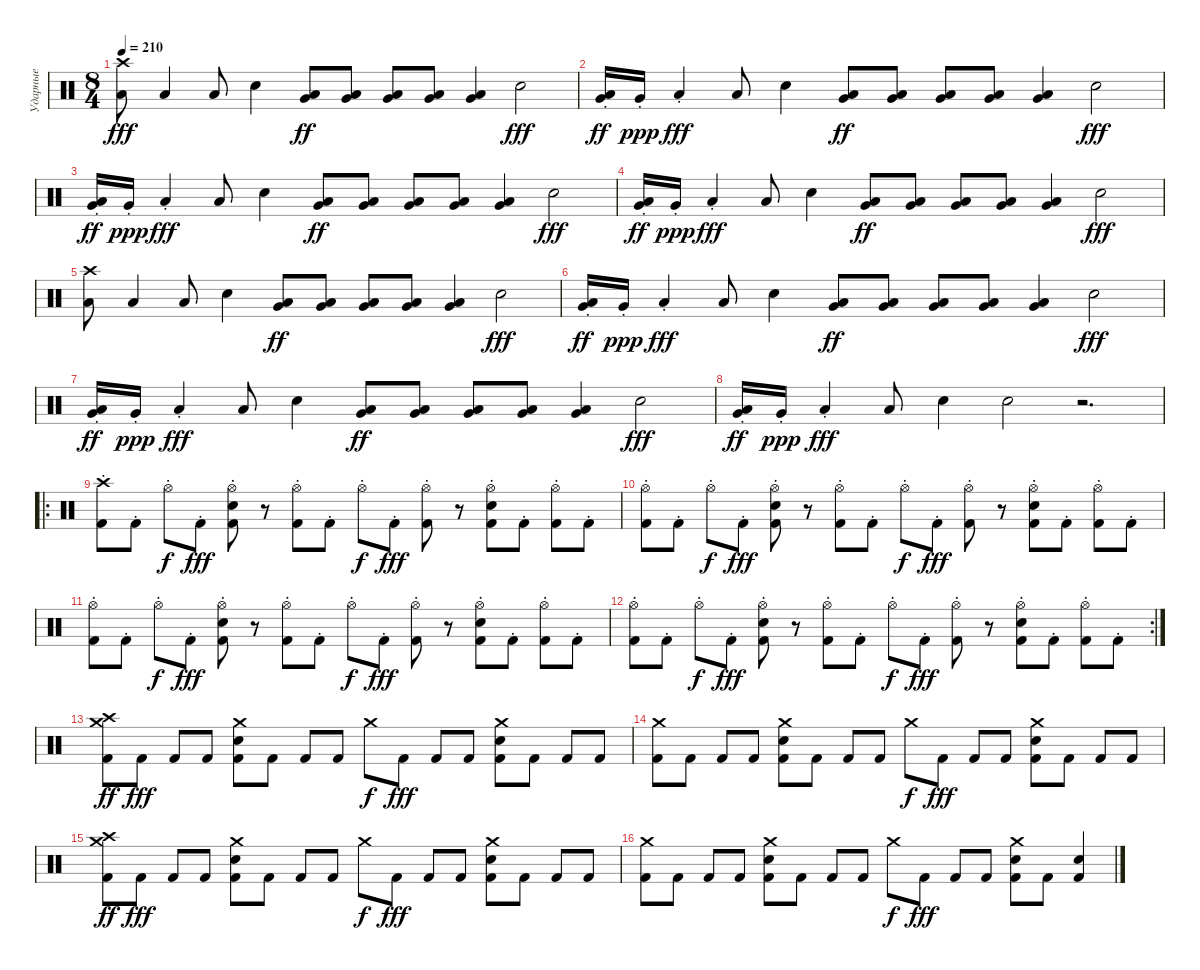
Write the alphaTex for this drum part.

\track ("Ударные" "Ударные") {instrument percussion}
\staff {score}
\articulation defaults
\ts (8 4)
\tempo 210
\clef neutral
\ks c
("Crash high (hit)" "Low Floor Tom (hit)").8{dy fff} "Low Floor Tom (hit)".4 "Low Floor Tom (hit)".8 "Electric Snare (hit)".4 ("Low Floor Tom (hit)" "Very Low Tom (hit)").8{bd 120 dy ff} ("Low Floor Tom (hit)" "Very Low Tom (hit)").8{bd 120} ("Low Floor Tom (hit)" "Very Low Tom (hit)").8{bd 120} ("Low Floor Tom (hit)" "Very Low Tom (hit)").8{bd 120} ("Low Floor Tom (hit)" "Very Low Tom (hit)").4{bd 120} "Electric Snare (hit)".2{dy fff} |
("Low Floor Tom (hit)"{st} "Very Low Tom (hit)"{st}).16{bd 120 dy ff} "Very Low Tom (hit)"{st}.16{dy ppp} "Low Floor Tom (hit)"{st}.4{dy fff} "Low Floor Tom (hit)".8 "Electric Snare (hit)".4 ("Low Floor Tom (hit)" "Very Low Tom (hit)").8{bd 120 dy ff} ("Low Floor Tom (hit)" "Very Low Tom (hit)").8{bd 120} ("Low Floor Tom (hit)" "Very Low Tom (hit)").8{bd 120} ("Low Floor Tom (hit)" "Very Low Tom (hit)").8{bd 120} ("Low Floor Tom (hit)" "Very Low Tom (hit)").4{bd 120} "Electric Snare (hit)".2{dy fff} |
("Low Floor Tom (hit)"{st} "Very Low Tom (hit)"{st}).16{bd 120 dy ff} "Very Low Tom (hit)"{st}.16{dy ppp} "Low Floor Tom (hit)"{st}.4{dy fff} "Low Floor Tom (hit)".8 "Electric Snare (hit)".4 ("Low Floor Tom (hit)" "Very Low Tom (hit)").8{bd 120 dy ff} ("Low Floor Tom (hit)" "Very Low Tom (hit)").8{bd 120} ("Low Floor Tom (hit)" "Very Low Tom (hit)").8{bd 120} ("Low Floor Tom (hit)" "Very Low Tom (hit)").8{bd 120} ("Low Floor Tom (hit)" "Very Low Tom (hit)").4{bd 120} "Electric Snare (hit)".2{dy fff} |
("Low Floor Tom (hit)"{st} "Very Low Tom (hit)"{st}).16{bd 120 dy ff} "Very Low Tom (hit)"{st}.16{dy ppp} "Low Floor Tom (hit)"{st}.4{dy fff} "Low Floor Tom (hit)".8 "Electric Snare (hit)".4 ("Low Floor Tom (hit)" "Very Low Tom (hit)").8{bd 120 dy ff} ("Low Floor Tom (hit)" "Very Low Tom (hit)").8{bd 120} ("Low Floor Tom (hit)" "Very Low Tom (hit)").8{bd 120} ("Low Floor Tom (hit)" "Very Low Tom (hit)").8{bd 120} ("Low Floor Tom (hit)" "Very Low Tom (hit)").4{bd 120} "Electric Snare (hit)".2{dy fff} |
("Crash high (hit)" "Low Floor Tom (hit)").8 "Low Floor Tom (hit)".4 "Low Floor Tom (hit)".8 "Electric Snare (hit)".4 ("Low Floor Tom (hit)" "Very Low Tom (hit)").8{bd 120 dy ff} ("Low Floor Tom (hit)" "Very Low Tom (hit)").8{bd 120} ("Low Floor Tom (hit)" "Very Low Tom (hit)").8{bd 120} ("Low Floor Tom (hit)" "Very Low Tom (hit)").8{bd 120} ("Low Floor Tom (hit)" "Very Low Tom (hit)").4{bd 120} "Electric Snare (hit)".2{dy fff} |
("Low Floor Tom (hit)"{st} "Very Low Tom (hit)"{st}).16{bd 120 dy ff} "Very Low Tom (hit)"{st}.16{dy ppp} "Low Floor Tom (hit)"{st}.4{dy fff} "Low Floor Tom (hit)".8 "Electric Snare (hit)".4 ("Low Floor Tom (hit)" "Very Low Tom (hit)").8{bd 120 dy ff} ("Low Floor Tom (hit)" "Very Low Tom (hit)").8{bd 120} ("Low Floor Tom (hit)" "Very Low Tom (hit)").8{bd 120} ("Low Floor Tom (hit)" "Very Low Tom (hit)").8{bd 120} ("Low Floor Tom (hit)" "Very Low Tom (hit)").4{bd 120} "Electric Snare (hit)".2{dy fff} |
("Low Floor Tom (hit)"{st} "Very Low Tom (hit)"{st}).16{bd 120 dy ff} "Very Low Tom (hit)"{st}.16{dy ppp} "Low Floor Tom (hit)"{st}.4{dy fff} "Low Floor Tom (hit)".8 "Electric Snare (hit)".4 ("Low Floor Tom (hit)" "Very Low Tom (hit)").8{bd 120 dy ff} ("Low Floor Tom (hit)" "Very Low Tom (hit)").8{bd 120} ("Low Floor Tom (hit)" "Very Low Tom (hit)").8{bd 120} ("Low Floor Tom (hit)" "Very Low Tom (hit)").8{bd 120} ("Low Floor Tom (hit)" "Very Low Tom (hit)").4{bd 120} "Electric Snare (hit)".2{dy fff} |
("Low Floor Tom (hit)"{st} "Very Low Tom (hit)"{st}).16{bd 120 dy ff} "Very Low Tom (hit)"{st}.16{dy ppp} "Low Floor Tom (hit)"{st}.4{dy fff} "Low Floor Tom (hit)".8 "Electric Snare (hit)".4 "Electric Snare (hit)".2 r.2{d} |
\ro
("Kick (hit) 2"{st} "Crash high (hit)"{st}).8 "Kick (hit) 2"{st}.8 "Hi-Hat (open)"{st}.8{dy f} "Kick (hit) 2"{st}.8{dy fff} ("Kick (hit) 2"{st} "Hi-Hat (open)"{st} "Electric Snare (hit)"{st}).8 r.8 ("Kick (hit) 2"{st} "Hi-Hat (open)"{st}).8 "Kick (hit) 2"{st}.8 "Hi-Hat (open)"{st}.8{dy f} "Kick (hit) 2"{st}.8{dy fff} ("Kick (hit) 2"{st} "Hi-Hat (open)"{st}).8 r.8 ("Kick (hit) 2"{st} "Hi-Hat (open)"{st} "Electric Snare (hit)"{st}).8 "Kick (hit) 2"{st}.8 ("Kick (hit) 2"{st} "Hi-Hat (open)"{st}).8 "Kick (hit) 2"{st}.8 |
("Kick (hit) 2"{st} "Hi-Hat (open)"{st}).8 "Kick (hit) 2"{st}.8 "Hi-Hat (open)"{st}.8{dy f} "Kick (hit) 2"{st}.8{dy fff} ("Kick (hit) 2"{st} "Hi-Hat (open)"{st} "Electric Snare (hit)"{st}).8 r.8 ("Kick (hit) 2"{st} "Hi-Hat (open)"{st}).8 "Kick (hit) 2"{st}.8 "Hi-Hat (open)"{st}.8{dy f} "Kick (hit) 2"{st}.8{dy fff} ("Kick (hit) 2"{st} "Hi-Hat (open)"{st}).8 r.8 ("Kick (hit) 2"{st} "Hi-Hat (open)"{st} "Electric Snare (hit)"{st}).8 "Kick (hit) 2"{st}.8 ("Kick (hit) 2"{st} "Hi-Hat (open)"{st}).8 "Kick (hit) 2"{st}.8 |
("Kick (hit) 2"{st} "Hi-Hat (open)"{st}).8 "Kick (hit) 2"{st}.8 "Hi-Hat (open)"{st}.8{dy f} "Kick (hit) 2"{st}.8{dy fff} ("Kick (hit) 2"{st} "Hi-Hat (open)"{st} "Electric Snare (hit)"{st}).8 r.8 ("Kick (hit) 2"{st} "Hi-Hat (open)"{st}).8 "Kick (hit) 2"{st}.8 "Hi-Hat (open)"{st}.8{dy f} "Kick (hit) 2"{st}.8{dy fff} ("Kick (hit) 2"{st} "Hi-Hat (open)"{st}).8 r.8 ("Kick (hit) 2"{st} "Hi-Hat (open)"{st} "Electric Snare (hit)"{st}).8 "Kick (hit) 2"{st}.8 ("Kick (hit) 2"{st} "Hi-Hat (open)"{st}).8 "Kick (hit) 2"{st}.8 |
\rc 2
("Kick (hit) 2"{st} "Hi-Hat (open)"{st}).8 "Kick (hit) 2"{st}.8 "Hi-Hat (open)"{st}.8{dy f} "Kick (hit) 2"{st}.8{dy fff} ("Kick (hit) 2"{st} "Hi-Hat (open)"{st} "Electric Snare (hit)"{st}).8 r.8 ("Kick (hit) 2"{st} "Hi-Hat (open)"{st}).8 "Kick (hit) 2"{st}.8 "Hi-Hat (open)"{st}.8{dy f} "Kick (hit) 2"{st}.8{dy fff} ("Kick (hit) 2"{st} "Hi-Hat (open)"{st}).8 r.8 ("Kick (hit) 2"{st} "Hi-Hat (open)"{st} "Electric Snare (hit)"{st}).8 "Kick (hit) 2"{st}.8 ("Kick (hit) 2"{st} "Hi-Hat (open)"{st}).8 "Kick (hit) 2"{st}.8 |
("Kick (hit) 2" "Crash high (hit)" "Crash medium (hit)").8{dy ff} "Kick (hit) 2".8{dy fff} "Kick (hit) 2".8 "Kick (hit) 2".8 ("Kick (hit) 2" "Crash medium (hit)" "Electric Snare (hit)").8 "Kick (hit) 2".8 "Kick (hit) 2".8 "Kick (hit) 2".8 "Crash medium (hit)".8{dy f} "Kick (hit) 2".8{dy fff} "Kick (hit) 2".8 "Kick (hit) 2".8 ("Kick (hit) 2" "Crash medium (hit)" "Electric Snare (hit)").8 "Kick (hit) 2".8 "Kick (hit) 2".8 "Kick (hit) 2".8 |
("Crash medium (hit)" "Kick (hit) 2").8 "Kick (hit) 2".8 "Kick (hit) 2".8 "Kick (hit) 2".8 ("Kick (hit) 2" "Crash medium (hit)" "Electric Snare (hit)").8 "Kick (hit) 2".8 "Kick (hit) 2".8 "Kick (hit) 2".8 "Crash medium (hit)".8{dy f} "Kick (hit) 2".8{dy fff} "Kick (hit) 2".8 "Kick (hit) 2".8 ("Kick (hit) 2" "Crash medium (hit)" "Electric Snare (hit)").8 "Kick (hit) 2".8 "Kick (hit) 2".8 "Kick (hit) 2".8 |
("Kick (hit) 2" "Crash high (hit)" "Crash medium (hit)").8{dy ff} "Kick (hit) 2".8{dy fff} "Kick (hit) 2".8 "Kick (hit) 2".8 ("Kick (hit) 2" "Crash medium (hit)" "Electric Snare (hit)").8 "Kick (hit) 2".8 "Kick (hit) 2".8 "Kick (hit) 2".8 "Crash medium (hit)".8{dy f} "Kick (hit) 2".8{dy fff} "Kick (hit) 2".8 "Kick (hit) 2".8 ("Kick (hit) 2" "Crash medium (hit)" "Electric Snare (hit)").8 "Kick (hit) 2".8 "Kick (hit) 2".8 "Kick (hit) 2".8 |
("Crash medium (hit)" "Kick (hit) 2").8 "Kick (hit) 2".8 "Kick (hit) 2".8 "Kick (hit) 2".8 ("Kick (hit) 2" "Crash medium (hit)" "Electric Snare (hit)").8 "Kick (hit) 2".8 "Kick (hit) 2".8 "Kick (hit) 2".8 "Crash medium (hit)".8{dy f} "Kick (hit) 2".8{dy fff} "Kick (hit) 2".8 "Kick (hit) 2".8 ("Kick (hit) 2" "Crash medium (hit)" "Electric Snare (hit)").8 "Kick (hit) 2".8 ("Kick (hit) 2" "Electric Snare (hit)").4
